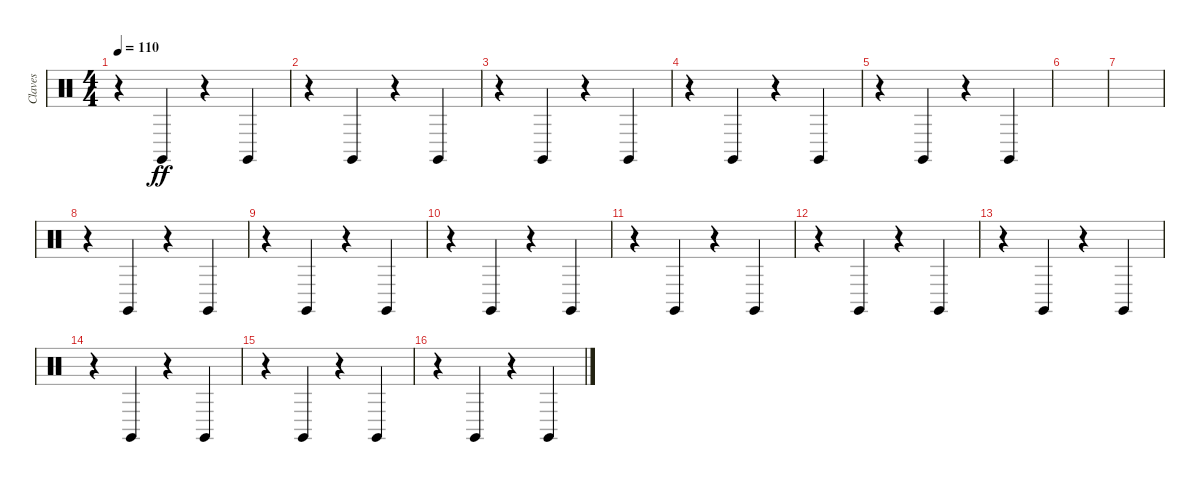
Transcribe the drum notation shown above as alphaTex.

\track ("Claves" "Claves") {instrument percussion}
\staff {score}
\articulation defaults
\ts (4 4)
\tempo 110
\clef neutral
\ks c
r.4{dy ff} "Claves (hit)".4 r.4 "Claves (hit)".4 |
r.4 "Claves (hit)".4 r.4 "Claves (hit)".4 |
r.4 "Claves (hit)".4 r.4 "Claves (hit)".4 |
r.4 "Claves (hit)".4 r.4 "Claves (hit)".4 |
r.4 "Claves (hit)".4 r.4 "Claves (hit)".4 |
|
|
r.4 "Claves (hit)".4 r.4 "Claves (hit)".4 |
r.4 "Claves (hit)".4 r.4 "Claves (hit)".4 |
r.4 "Claves (hit)".4 r.4 "Claves (hit)".4 |
r.4 "Claves (hit)".4 r.4 "Claves (hit)".4 |
r.4 "Claves (hit)".4 r.4 "Claves (hit)".4 |
r.4 "Claves (hit)".4 r.4 "Claves (hit)".4 |
r.4 "Claves (hit)".4 r.4 "Claves (hit)".4 |
r.4 "Claves (hit)".4 r.4 "Claves (hit)".4 |
r.4 "Claves (hit)".4 r.4 "Claves (hit)".4
